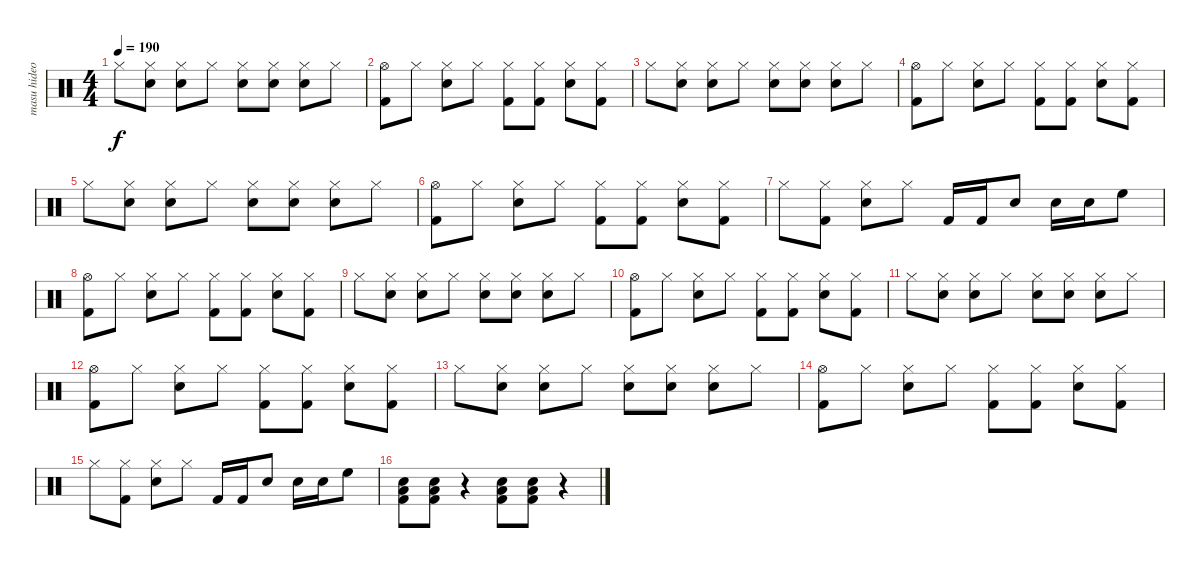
\track ("masu hideo" "masu hideo") {instrument percussion}
\staff {score}
\articulation defaults
\ts (4 4)
\tempo 190
\clef neutral
\ks c "Hi-Hat (closed)".8{dy f}
("Hi-Hat (closed)" "Snare (hit) 2").8 ("Hi-Hat (closed)" "Snare (hit) 2").8 "Hi-Hat (closed)".8 ("Hi-Hat (closed)" "Snare (hit) 2").8 ("Hi-Hat (closed)" "Snare (hit) 2").8 ("Hi-Hat (closed)" "Snare (hit) 2").8 "Hi-Hat (closed)".8 |
("Hi-Hat (open)" "Kick (hit) 2").8 "Hi-Hat (closed)".8 ("Hi-Hat (closed)" "Snare (hit) 2").8 "Hi-Hat (closed)".8 ("Hi-Hat (closed)" "Kick (hit) 2").8 ("Hi-Hat (closed)" "Kick (hit) 2").8 ("Hi-Hat (closed)" "Snare (hit) 2").8 ("Hi-Hat (closed)" "Kick (hit) 2").8 |
"Hi-Hat (closed)".8 ("Hi-Hat (closed)" "Snare (hit) 2").8 ("Hi-Hat (closed)" "Snare (hit) 2").8 "Hi-Hat (closed)".8 ("Hi-Hat (closed)" "Snare (hit) 2").8 ("Hi-Hat (closed)" "Snare (hit) 2").8 ("Hi-Hat (closed)" "Snare (hit) 2").8 "Hi-Hat (closed)".8 |
("Hi-Hat (open)" "Kick (hit) 2").8 "Hi-Hat (closed)".8 ("Hi-Hat (closed)" "Snare (hit) 2").8 "Hi-Hat (closed)".8 ("Hi-Hat (closed)" "Kick (hit) 2").8 ("Hi-Hat (closed)" "Kick (hit) 2").8 ("Hi-Hat (closed)" "Snare (hit) 2").8 ("Hi-Hat (closed)" "Kick (hit) 2").8 |
"Hi-Hat (closed)".8 ("Hi-Hat (closed)" "Snare (hit) 2").8 ("Hi-Hat (closed)" "Snare (hit) 2").8 "Hi-Hat (closed)".8 ("Hi-Hat (closed)" "Snare (hit) 2").8 ("Hi-Hat (closed)" "Snare (hit) 2").8 ("Hi-Hat (closed)" "Snare (hit) 2").8 "Hi-Hat (closed)".8 |
("Hi-Hat (open)" "Kick (hit) 2").8 "Hi-Hat (closed)".8 ("Hi-Hat (closed)" "Snare (hit) 2").8 "Hi-Hat (closed)".8 ("Hi-Hat (closed)" "Kick (hit) 2").8 ("Hi-Hat (closed)" "Kick (hit) 2").8 ("Hi-Hat (closed)" "Snare (hit) 2").8 ("Hi-Hat (closed)" "Kick (hit) 2").8 |
"Hi-Hat (closed)".8 ("Hi-Hat (closed)" "Kick (hit) 2").8 ("Hi-Hat (closed)" "Snare (hit) 2").8 "Hi-Hat (closed)".8 "Kick (hit) 2".16 "Kick (hit) 2".16 "Snare (hit) 2".8 "Snare (hit) 2".16 "Snare (hit) 2".16 "High Floor Tom (hit)".8 |
("Hi-Hat (open)" "Kick (hit) 2").8 "Hi-Hat (closed)".8 ("Hi-Hat (closed)" "Snare (hit) 2").8 "Hi-Hat (closed)".8 ("Hi-Hat (closed)" "Kick (hit) 2").8 ("Hi-Hat (closed)" "Kick (hit) 2").8 ("Hi-Hat (closed)" "Snare (hit) 2").8 ("Hi-Hat (closed)" "Kick (hit) 2").8 |
"Hi-Hat (closed)".8 ("Hi-Hat (closed)" "Snare (hit) 2").8 ("Hi-Hat (closed)" "Snare (hit) 2").8 "Hi-Hat (closed)".8 ("Hi-Hat (closed)" "Snare (hit) 2").8 ("Hi-Hat (closed)" "Snare (hit) 2").8 ("Hi-Hat (closed)" "Snare (hit) 2").8 "Hi-Hat (closed)".8 |
("Hi-Hat (open)" "Kick (hit) 2").8 "Hi-Hat (closed)".8 ("Hi-Hat (closed)" "Snare (hit) 2").8 "Hi-Hat (closed)".8 ("Hi-Hat (closed)" "Kick (hit) 2").8 ("Hi-Hat (closed)" "Kick (hit) 2").8 ("Hi-Hat (closed)" "Snare (hit) 2").8 ("Hi-Hat (closed)" "Kick (hit) 2").8 |
"Hi-Hat (closed)".8 ("Hi-Hat (closed)" "Snare (hit) 2").8 ("Hi-Hat (closed)" "Snare (hit) 2").8 "Hi-Hat (closed)".8 ("Hi-Hat (closed)" "Snare (hit) 2").8 ("Hi-Hat (closed)" "Snare (hit) 2").8 ("Hi-Hat (closed)" "Snare (hit) 2").8 "Hi-Hat (closed)".8 |
("Hi-Hat (open)" "Kick (hit) 2").8 "Hi-Hat (closed)".8 ("Hi-Hat (closed)" "Snare (hit) 2").8 "Hi-Hat (closed)".8 ("Hi-Hat (closed)" "Kick (hit) 2").8 ("Hi-Hat (closed)" "Kick (hit) 2").8 ("Hi-Hat (closed)" "Snare (hit) 2").8 ("Hi-Hat (closed)" "Kick (hit) 2").8 |
"Hi-Hat (closed)".8 ("Hi-Hat (closed)" "Snare (hit) 2").8 ("Hi-Hat (closed)" "Snare (hit) 2").8 "Hi-Hat (closed)".8 ("Hi-Hat (closed)" "Snare (hit) 2").8 ("Hi-Hat (closed)" "Snare (hit) 2").8 ("Hi-Hat (closed)" "Snare (hit) 2").8 "Hi-Hat (closed)".8 |
("Hi-Hat (open)" "Kick (hit) 2").8 "Hi-Hat (closed)".8 ("Hi-Hat (closed)" "Snare (hit) 2").8 "Hi-Hat (closed)".8 ("Hi-Hat (closed)" "Kick (hit) 2").8 ("Hi-Hat (closed)" "Kick (hit) 2").8 ("Hi-Hat (closed)" "Snare (hit) 2").8 ("Hi-Hat (closed)" "Kick (hit) 2").8 |
"Hi-Hat (closed)".8 ("Hi-Hat (closed)" "Kick (hit) 2").8 ("Hi-Hat (closed)" "Snare (hit) 2").8 "Hi-Hat (closed)".8 "Kick (hit) 2".16 "Kick (hit) 2".16 "Snare (hit) 2".8 "Snare (hit) 2".16 "Snare (hit) 2".16 "High Floor Tom (hit)".8 |
("Snare (hit) 2" "Low Floor Tom (hit)" "Kick (hit) 2").8 ("Snare (hit) 2" "Low Floor Tom (hit)" "Kick (hit) 2").8 r.4 ("Snare (hit) 2" "Low Floor Tom (hit)" "Kick (hit) 2").8 ("Snare (hit) 2" "Low Floor Tom (hit)" "Kick (hit) 2").8 r.4
